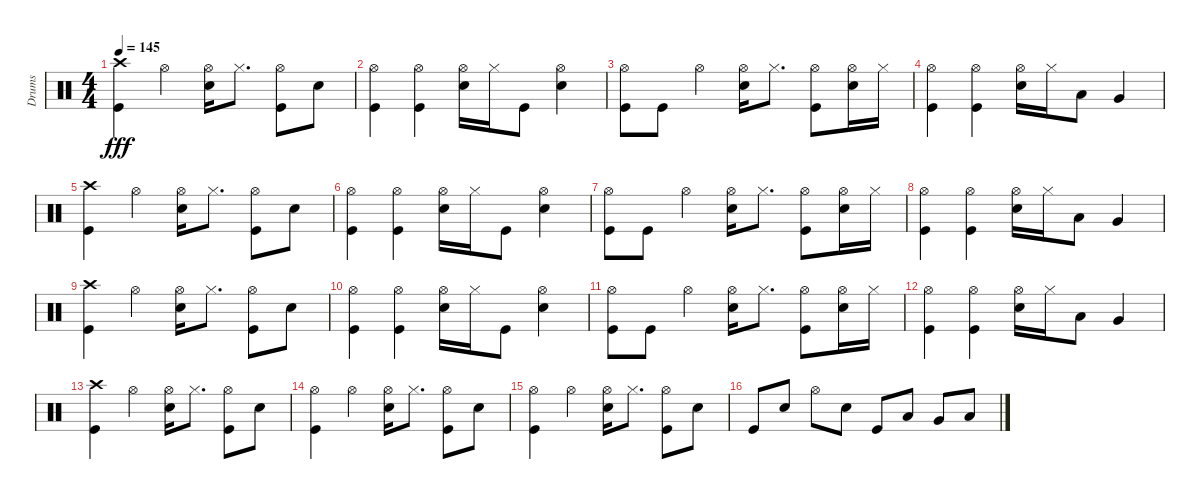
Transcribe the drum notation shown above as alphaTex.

\track ("Drums" "Drums") {instrument percussion}
\staff {score}
\articulation defaults
\ts (4 4)
\tempo 145
\clef neutral
\ks c
("Crash high (hit)" "Kick (hit)").4{dy fff} "Hi-Hat (open)".4 ("Hi-Hat (open)" "Snare (hit) 2").16 "Hi-Hat (closed)".8{d} ("Hi-Hat (open)" "Kick (hit)").8 "Snare (hit) 2".8 |
("Hi-Hat (open)" "Kick (hit)").4 ("Hi-Hat (open)" "Kick (hit)").4 ("Hi-Hat (open)" "Snare (hit) 2").16 "Hi-Hat (closed)".16 "Kick (hit)".8 ("Hi-Hat (open)" "Snare (hit) 2").4 |
("Hi-Hat (open)" "Kick (hit)").8 "Kick (hit)".8 "Hi-Hat (open)".4 ("Hi-Hat (open)" "Snare (hit) 2").16 "Hi-Hat (closed)".8{d} ("Hi-Hat (open)" "Kick (hit)").8 ("Hi-Hat (open)" "Snare (hit) 2").16 "Hi-Hat (closed)".16 |
("Hi-Hat (open)" "Kick (hit)").4 ("Hi-Hat (open)" "Kick (hit)").4 ("Hi-Hat (open)" "Snare (hit) 2").16 "Hi-Hat (closed)".16 "Low Tom (hit)".8 "Very Low Tom (hit)".4 |
("Crash high (hit)" "Kick (hit)").4 "Hi-Hat (open)".4 ("Hi-Hat (open)" "Snare (hit) 2").16 "Hi-Hat (closed)".8{d} ("Hi-Hat (open)" "Kick (hit)").8 "Snare (hit) 2".8 |
("Hi-Hat (open)" "Kick (hit)").4 ("Hi-Hat (open)" "Kick (hit)").4 ("Hi-Hat (open)" "Snare (hit) 2").16 "Hi-Hat (closed)".16 "Kick (hit)".8 ("Hi-Hat (open)" "Snare (hit) 2").4 |
("Hi-Hat (open)" "Kick (hit)").8 "Kick (hit)".8 "Hi-Hat (open)".4 ("Hi-Hat (open)" "Snare (hit) 2").16 "Hi-Hat (closed)".8{d} ("Hi-Hat (open)" "Kick (hit)").8 ("Hi-Hat (open)" "Snare (hit) 2").16 "Hi-Hat (closed)".16 |
("Hi-Hat (open)" "Kick (hit)").4 ("Hi-Hat (open)" "Kick (hit)").4 ("Hi-Hat (open)" "Snare (hit) 2").16 "Hi-Hat (closed)".16 "Low Tom (hit)".8 "Very Low Tom (hit)".4 |
("Crash high (hit)" "Kick (hit)").4 "Hi-Hat (open)".4 ("Hi-Hat (open)" "Snare (hit) 2").16 "Hi-Hat (closed)".8{d} ("Hi-Hat (open)" "Kick (hit)").8 "Snare (hit) 2".8 |
("Hi-Hat (open)" "Kick (hit)").4 ("Hi-Hat (open)" "Kick (hit)").4 ("Hi-Hat (open)" "Snare (hit) 2").16 "Hi-Hat (closed)".16 "Kick (hit)".8 ("Hi-Hat (open)" "Snare (hit) 2").4 |
("Hi-Hat (open)" "Kick (hit)").8 "Kick (hit)".8 "Hi-Hat (open)".4 ("Hi-Hat (open)" "Snare (hit) 2").16 "Hi-Hat (closed)".8{d} ("Hi-Hat (open)" "Kick (hit)").8 ("Hi-Hat (open)" "Snare (hit) 2").16 "Hi-Hat (closed)".16 |
("Hi-Hat (open)" "Kick (hit)").4 ("Hi-Hat (open)" "Kick (hit)").4 ("Hi-Hat (open)" "Snare (hit) 2").16 "Hi-Hat (closed)".16 "Low Tom (hit)".8 "Very Low Tom (hit)".4 |
("Crash high (hit)" "Kick (hit)").4 "Hi-Hat (open)".4 ("Hi-Hat (open)" "Snare (hit) 2").16 "Hi-Hat (closed)".8{d} ("Hi-Hat (open)" "Kick (hit)").8 "Snare (hit) 2".8 |
("Hi-Hat (open)" "Kick (hit)").4 "Hi-Hat (open)".4 ("Hi-Hat (open)" "Snare (hit) 2").16 "Hi-Hat (closed)".8{d} ("Hi-Hat (open)" "Kick (hit)").8 "Snare (hit) 2".8 |
("Hi-Hat (open)" "Kick (hit)").4 "Hi-Hat (open)".4 ("Hi-Hat (open)" "Snare (hit) 2").16 "Hi-Hat (closed)".8{d} ("Hi-Hat (open)" "Kick (hit)").8 "Snare (hit) 2".8 |
"Kick (hit)".8 "Snare (hit) 2".8 "Hi-Hat (open)".8 "Snare (hit) 2".8 "Kick (hit)".8 "Low Tom (hit)".8 "Very Low Tom (hit)".8 "Low Floor Tom (hit)".8
